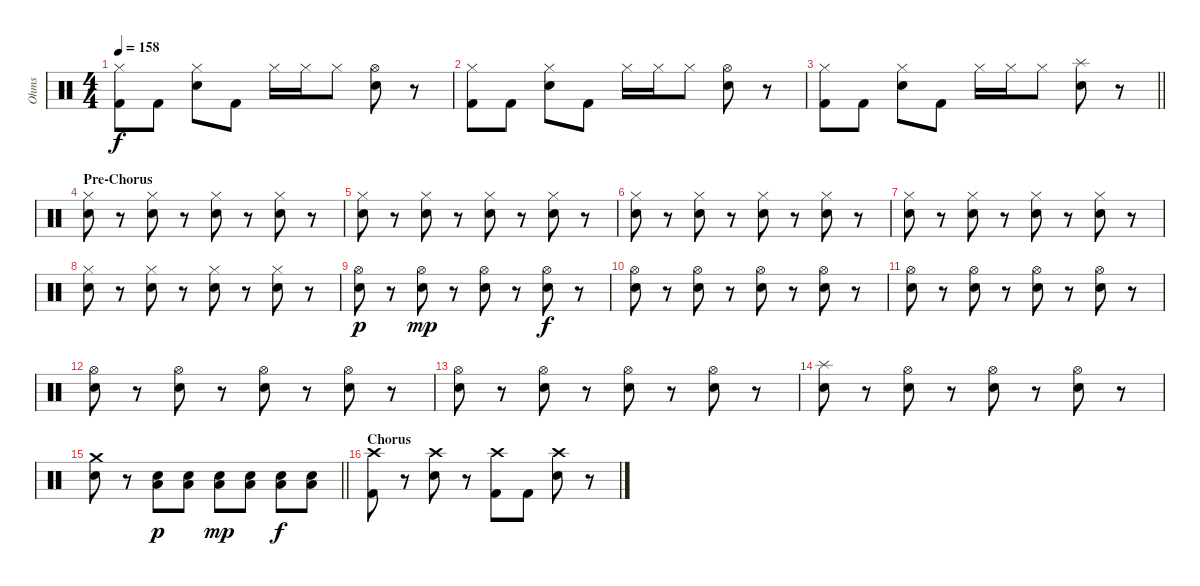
\track ("Ohms" "Ohms") {instrument percussion}
\staff {score}
\articulation defaults
\ts (4 4)
\tempo 158
\clef neutral
\ks c
("Hi-Hat (closed)" "Kick (hit) 2").8{dy f} "Kick (hit) 2".8 ("Hi-Hat (closed)" "Snare (hit) 2").8 "Kick (hit) 2".8 "Hi-Hat (closed)".16 "Hi-Hat (closed)".16 "Hi-Hat (closed)".8 ("Hi-Hat (open)" "Snare (hit) 2").8 r.8 |
("Hi-Hat (closed)" "Kick (hit) 2").8 "Kick (hit) 2".8 ("Hi-Hat (closed)" "Snare (hit) 2").8 "Kick (hit) 2".8 "Hi-Hat (closed)".16 "Hi-Hat (closed)".16 "Hi-Hat (closed)".8 ("Hi-Hat (open)" "Snare (hit) 2").8 r.8 |
\barLineRight lightlight
("Hi-Hat (closed)" "Kick (hit) 2").8 "Kick (hit) 2".8 ("Hi-Hat (closed)" "Snare (hit) 2").8 "Kick (hit) 2".8 "Hi-Hat (closed)".16 "Hi-Hat (closed)".16 "Hi-Hat (closed)".8 ("Splash (hit)" "Snare (hit) 2").8 r.8 |
\section ("" "Pre-Chorus")
("Hi-Hat (closed)" "Snare (hit) 2").8 r.8 ("Hi-Hat (closed)" "Snare (hit) 2").8 r.8 ("Hi-Hat (closed)" "Snare (hit) 2").8 r.8 ("Hi-Hat (closed)" "Snare (hit) 2").8 r.8 |
("Hi-Hat (closed)" "Snare (hit) 2").8 r.8 ("Hi-Hat (closed)" "Snare (hit) 2").8 r.8 ("Hi-Hat (closed)" "Snare (hit) 2").8 r.8 ("Hi-Hat (closed)" "Snare (hit) 2").8 r.8 |
("Hi-Hat (closed)" "Snare (hit) 2").8 r.8 ("Hi-Hat (closed)" "Snare (hit) 2").8 r.8 ("Hi-Hat (closed)" "Snare (hit) 2").8 r.8 ("Hi-Hat (closed)" "Snare (hit) 2").8 r.8 |
("Hi-Hat (closed)" "Snare (hit) 2").8 r.8 ("Hi-Hat (closed)" "Snare (hit) 2").8 r.8 ("Hi-Hat (closed)" "Snare (hit) 2").8 r.8 ("Hi-Hat (closed)" "Snare (hit) 2").8 r.8 |
("Hi-Hat (closed)" "Snare (hit) 2").8 r.8 ("Hi-Hat (closed)" "Snare (hit) 2").8 r.8 ("Hi-Hat (closed)" "Snare (hit) 2").8 r.8 ("Hi-Hat (closed)" "Snare (hit) 2").8 r.8 |
("Hi-Hat (open)" "Snare (hit) 2").8{dy p} r.8 ("Hi-Hat (open)" "Snare (hit) 2").8{dy mp} r.8 ("Hi-Hat (open)" "Snare (hit) 2").8 r.8 ("Hi-Hat (open)" "Snare (hit) 2").8{dy f} r.8 |
("Hi-Hat (open)" "Snare (hit) 2").8 r.8 ("Hi-Hat (open)" "Snare (hit) 2").8 r.8 ("Hi-Hat (open)" "Snare (hit) 2").8 r.8 ("Hi-Hat (open)" "Snare (hit) 2").8 r.8 |
("Hi-Hat (open)" "Snare (hit) 2").8 r.8 ("Hi-Hat (open)" "Snare (hit) 2").8 r.8 ("Hi-Hat (open)" "Snare (hit) 2").8 r.8 ("Hi-Hat (open)" "Snare (hit) 2").8 r.8 |
("Hi-Hat (open)" "Snare (hit) 2").8 r.8 ("Hi-Hat (open)" "Snare (hit) 2").8 r.8 ("Hi-Hat (open)" "Snare (hit) 2").8 r.8 ("Hi-Hat (open)" "Snare (hit) 2").8 r.8 |
("Hi-Hat (open)" "Snare (hit) 2").8 r.8 ("Hi-Hat (open)" "Snare (hit) 2").8 r.8 ("Hi-Hat (open)" "Snare (hit) 2").8 r.8 ("Hi-Hat (open)" "Snare (hit) 2").8 r.8 |
("Splash (hit)" "Snare (hit) 2").8 r.8 ("Hi-Hat (open)" "Snare (hit) 2").8 r.8 ("Hi-Hat (open)" "Snare (hit) 2").8 r.8 ("Hi-Hat (open)" "Snare (hit) 2").8 r.8 |
\barLineRight lightlight
("Crash medium (hit)" "Snare (hit) 2").8 r.8 ("Snare (hit) 2" "Low Tom (hit)").8{dy p} ("Snare (hit) 2" "Low Tom (hit)").8 ("Snare (hit) 2" "Low Tom (hit)").8{dy mp} ("Snare (hit) 2" "Low Tom (hit)").8 ("Snare (hit) 2" "Low Tom (hit)").8{dy f} ("Snare (hit) 2" "Low Tom (hit)").8 |
\section ("" "Chorus")
("Crash high (hit)" "Kick (hit) 2").8 r.8 ("Crash high (hit)" "Snare (hit) 2").8 r.8 ("Crash high (hit)" "Kick (hit) 2").8 "Kick (hit) 2".8 ("Crash high (hit)" "Snare (hit) 2").8 r.8
